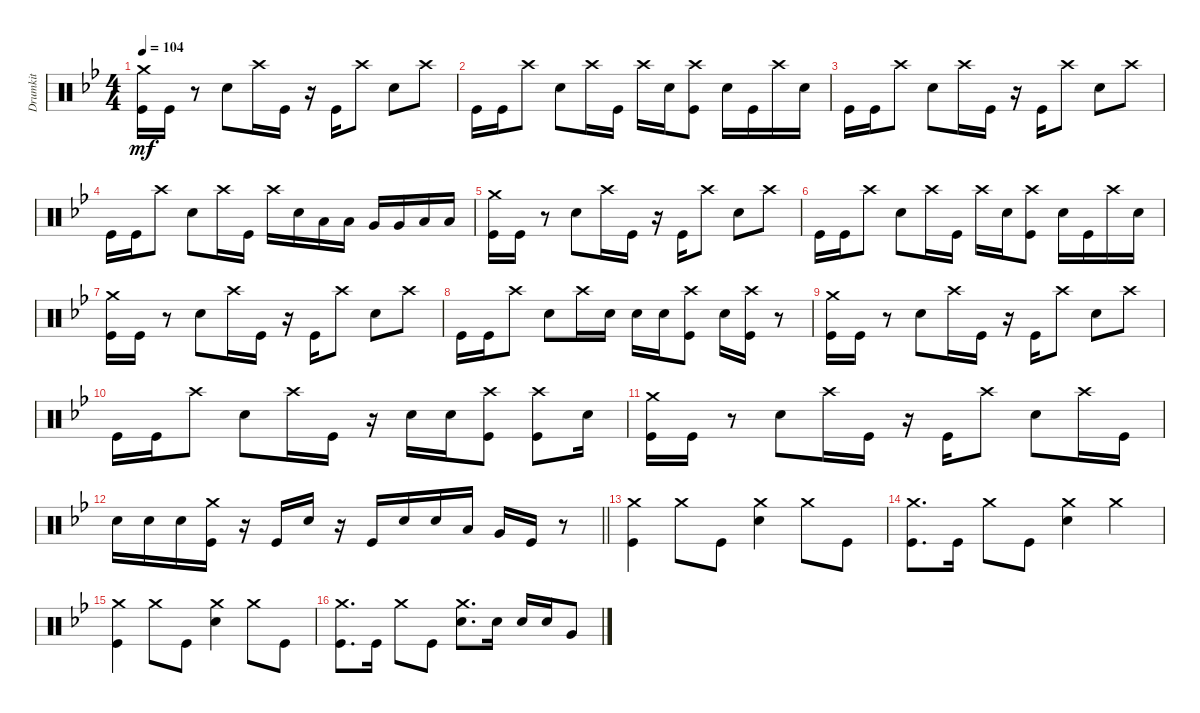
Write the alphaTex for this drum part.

\track ("Drumkit" "Drumkit") {instrument percussion}
\staff {score}
\articulation defaults
\ts (4 4)
\tempo 104
\clef neutral
\ks bb
("Kick (hit)" "Crash medium (hit)").16{dy mf} "Kick (hit)".16 r.8 "Snare (hit) 2".8 "Crash high (hit)".16 "Kick (hit)".16 r.16 "Kick (hit)".16 "Crash high (hit)".8 "Snare (hit) 2".8 "Crash high (hit)".8 |
"Kick (hit)".16 "Kick (hit)".16 "Crash high (hit)".8 "Snare (hit) 2".8 "Crash high (hit)".16 "Kick (hit)".16 "Crash high (hit)".16 "Snare (hit) 2".16 ("Crash high (hit)" "Kick (hit)").8 "Snare (hit) 2".16 "Kick (hit)".16 "Crash high (hit)".16 "Snare (hit) 2".16 |
"Kick (hit)".16 "Kick (hit)".16 "Crash high (hit)".8 "Snare (hit) 2".8 "Crash high (hit)".16 "Kick (hit)".16 r.16 "Kick (hit)".16 "Crash high (hit)".8 "Snare (hit) 2".8 "Crash high (hit)".8 |
"Kick (hit)".16 "Kick (hit)".16 "Crash high (hit)".8 "Snare (hit) 2".8 "Crash high (hit)".16 "Kick (hit)".16 "Crash high (hit)".16 "Snare (hit) 2".16 "Low Tom (hit)".16 "Low Tom (hit)".16 "Very Low Tom (hit)".16 "Very Low Tom (hit)".16 "Low Floor Tom (hit)".16 "Low Floor Tom (hit)".16 |
("Kick (hit)" "Crash medium (hit)").16 "Kick (hit)".16 r.8 "Snare (hit) 2".8 "Crash high (hit)".16 "Kick (hit)".16 r.16 "Kick (hit)".16 "Crash high (hit)".8 "Snare (hit) 2".8 "Crash high (hit)".8 |
"Kick (hit)".16 "Kick (hit)".16 "Crash high (hit)".8 "Snare (hit) 2".8 "Crash high (hit)".16 "Kick (hit)".16 "Crash high (hit)".16 "Snare (hit) 2".16 ("Crash high (hit)" "Kick (hit)").8 "Snare (hit) 2".16 "Kick (hit)".16 "Crash high (hit)".16 "Snare (hit) 2".16 |
("Kick (hit)" "Crash medium (hit)").16 "Kick (hit)".16 r.8 "Snare (hit) 2".8 "Crash high (hit)".16 "Kick (hit)".16 r.16 "Kick (hit)".16 "Crash high (hit)".8 "Snare (hit) 2".8 "Crash high (hit)".8 |
"Kick (hit)".16 "Kick (hit)".16 "Crash high (hit)".8 "Snare (hit) 2".8 "Crash high (hit)".16 "Snare (hit) 2".16 "Snare (hit) 2".16 "Snare (hit) 2".16 ("Crash high (hit)" "Kick (hit)").8 "Snare (hit) 2".16 ("Kick (hit)" "Crash high (hit)").16 r.8 |
("Kick (hit)" "Crash medium (hit)").16 "Kick (hit)".16 r.8 "Snare (hit) 2".8 "Crash high (hit)".16 "Kick (hit)".16 r.16 "Kick (hit)".16 "Crash high (hit)".8 "Snare (hit) 2".8 "Crash high (hit)".8 |
"Kick (hit)".16 "Kick (hit)".16 "Crash high (hit)".8 "Snare (hit) 2".8 "Crash high (hit)".16 "Kick (hit)".16 r.16 "Snare (hit) 2".16 "Snare (hit) 2".16 ("Kick (hit)" "Crash high (hit)").8 ("Crash high (hit)" "Kick (hit)").8 "Snare (hit) 2".16 |
("Kick (hit)" "Crash medium (hit)").16 "Kick (hit)".16 r.8 "Snare (hit) 2".8 "Crash high (hit)".16 "Kick (hit)".16 r.16 "Kick (hit)".16 "Crash high (hit)".8 "Snare (hit) 2".8 "Crash high (hit)".16 "Kick (hit)".16 |
\barLineRight lightlight "Snare (hit) 2".16 "Snare (hit) 2".16 "Snare (hit) 2".16
("Kick (hit)" "Crash medium (hit)").16 r.16 "Kick (hit)".16 "Snare (hit) 2".16 r.16 "Kick (hit)".16 "Snare (hit) 2".16 "Snare (hit) 2".16 "Low Tom (hit)".16 "Very Low Tom (hit)".16 "Kick (hit)".16 r.8 |
("Crash medium (hit)" "Kick (hit)").4 "Crash medium (hit)".8 "Kick (hit)".8 ("Snare (hit) 2" "Crash medium (hit)").4 "Crash medium (hit)".8 "Kick (hit)".8 |
("Crash medium (hit)" "Kick (hit)").8{d} "Kick (hit)".16 "Crash medium (hit)".8 "Kick (hit)".8 ("Crash medium (hit)" "Snare (hit) 2").4 "Crash medium (hit)".4 |
("Crash medium (hit)" "Kick (hit)").4 "Crash medium (hit)".8 "Kick (hit)".8 ("Snare (hit) 2" "Crash medium (hit)").4 "Crash medium (hit)".8 "Kick (hit)".8 |
("Crash medium (hit)" "Kick (hit)").8{d} "Kick (hit)".16 "Crash medium (hit)".8 "Kick (hit)".8 ("Crash medium (hit)" "Snare (hit) 2").8{d} "Snare (hit) 2".16 "Snare (hit) 2".16 "Snare (hit) 2".16 "Very Low Tom (hit)".8
